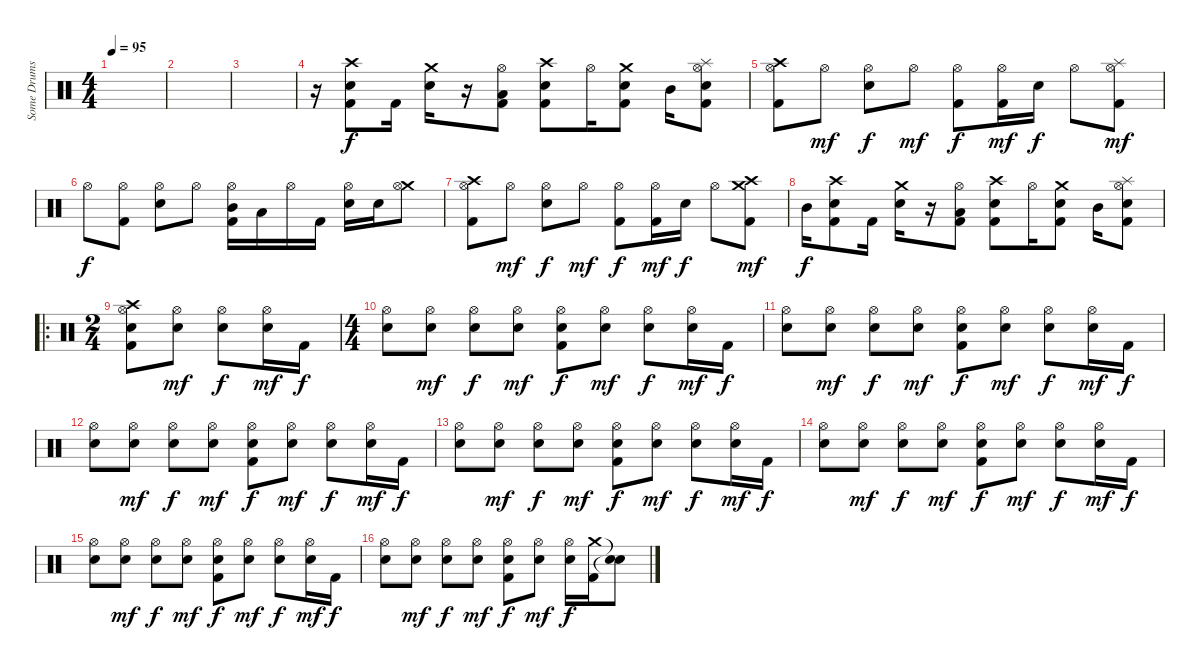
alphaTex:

\track ("Some Drums" "Some Drums") {instrument percussion}
\staff {score}
\articulation defaults
\ts (4 4)
\tempo 95
\tempo 60
\tempo 95
\clef neutral
\ks c
|
|
|
r.16 ("Crash high (hit)" "Electric Snare (hit)" "Kick (hit) 2").8 "Kick (hit) 2".16 ("Crash medium (hit)" "Electric Snare (hit)").16 r.16 ("Hi-Hat (open)" "Low Tom (hit)" "Kick (hit) 2").8 ("Crash high (hit)" "Electric Snare (hit)" "Kick (hit) 2").8 "Hi-Hat (open)".16 ("Crash medium (hit)" "Electric Snare (hit)" "Kick (hit) 2").8 "Mid Tom (hit)".16 ("Splash (hit)" "Hi-Hat (open)" "Electric Snare (hit)" "Kick (hit) 2").8 |
("Crash high (hit)" "Hi-Hat (open)" "Kick (hit) 2").8 "Hi-Hat (open)".8{dy mf} ("Hi-Hat (open)" "Electric Snare (hit)").8{dy f} "Hi-Hat (open)".8{dy mf} ("Hi-Hat (open)" "Kick (hit) 2").8{dy f} ("Hi-Hat (open)" "Kick (hit) 2").16{dy mf} "Electric Snare (hit)".16{dy f} "Hi-Hat (open)".8 ("Splash (hit)" "Hi-Hat (open)" "Kick (hit) 2").8{dy mf} |
"Hi-Hat (open)".8{dy f} ("Hi-Hat (open)" "Kick (hit) 2").8 ("Hi-Hat (open)" "Electric Snare (hit)").8 "Hi-Hat (open)".8 ("Hi-Hat (open)" "Mid Tom (hit)" "Kick (hit) 2").16 "Low Tom (hit)".16 "Hi-Hat (open)".16 "Kick (hit) 2".16 ("Hi-Hat (open)" "Electric Snare (hit)").16 "Electric Snare (hit)".16 ("Crash medium (hit)" "Hi-Hat (open)").8 |
("Crash high (hit)" "Hi-Hat (open)" "Kick (hit) 2").8 "Hi-Hat (open)".8{dy mf} ("Hi-Hat (open)" "Electric Snare (hit)").8{dy f} "Hi-Hat (open)".8{dy mf} ("Hi-Hat (open)" "Kick (hit) 2").8{dy f} ("Hi-Hat (open)" "Kick (hit) 2").16{dy mf} "Electric Snare (hit)".16{dy f} "Hi-Hat (open)".8 ("Crash medium (hit)" "Crash high (hit)" "Kick (hit) 2").8{dy mf} |
"Mid Tom (hit)".16{dy f} ("Crash high (hit)" "Electric Snare (hit)" "Kick (hit) 2").8 "Kick (hit) 2".16 ("Crash medium (hit)" "Electric Snare (hit)").16 r.16 ("Hi-Hat (open)" "Low Tom (hit)" "Kick (hit) 2").8 ("Crash high (hit)" "Electric Snare (hit)" "Kick (hit) 2").8 "Hi-Hat (open)".16 ("Crash medium (hit)" "Electric Snare (hit)" "Kick (hit) 2").8 "Mid Tom (hit)".16 ("Splash (hit)" "Hi-Hat (open)" "Electric Snare (hit)" "Kick (hit) 2").8 |
\ro
\ts (2 4)
("Crash high (hit)" "Hi-Hat (open)" "Electric Snare (hit)" "Kick (hit) 2").8 ("Hi-Hat (open)" "Electric Snare (hit)").8{dy mf} ("Hi-Hat (open)" "Electric Snare (hit)").8{dy f} ("Hi-Hat (open)" "Electric Snare (hit)").16{dy mf} "Kick (hit) 2".16{dy f} |
\ts (4 4)
("Hi-Hat (open)" "Electric Snare (hit)").8 ("Hi-Hat (open)" "Electric Snare (hit)").8{dy mf} ("Hi-Hat (open)" "Electric Snare (hit)").8{dy f} ("Hi-Hat (open)" "Electric Snare (hit)").8{dy mf} ("Hi-Hat (open)" "Electric Snare (hit)" "Kick (hit) 2").8{dy f} ("Hi-Hat (open)" "Electric Snare (hit)").8{dy mf} ("Hi-Hat (open)" "Electric Snare (hit)").8{dy f} ("Hi-Hat (open)" "Electric Snare (hit)").16{dy mf} "Kick (hit) 2".16{dy f} |
("Hi-Hat (open)" "Electric Snare (hit)").8 ("Hi-Hat (open)" "Electric Snare (hit)").8{dy mf} ("Hi-Hat (open)" "Electric Snare (hit)").8{dy f} ("Hi-Hat (open)" "Electric Snare (hit)").8{dy mf} ("Hi-Hat (open)" "Electric Snare (hit)" "Kick (hit) 2").8{dy f} ("Hi-Hat (open)" "Electric Snare (hit)").8{dy mf} ("Hi-Hat (open)" "Electric Snare (hit)").8{dy f} ("Hi-Hat (open)" "Electric Snare (hit)").16{dy mf} "Kick (hit) 2".16{dy f} |
("Hi-Hat (open)" "Electric Snare (hit)").8 ("Hi-Hat (open)" "Electric Snare (hit)").8{dy mf} ("Hi-Hat (open)" "Electric Snare (hit)").8{dy f} ("Hi-Hat (open)" "Electric Snare (hit)").8{dy mf} ("Hi-Hat (open)" "Electric Snare (hit)" "Kick (hit) 2").8{dy f} ("Hi-Hat (open)" "Electric Snare (hit)").8{dy mf} ("Hi-Hat (open)" "Electric Snare (hit)").8{dy f} ("Hi-Hat (open)" "Electric Snare (hit)").16{dy mf} "Kick (hit) 2".16{dy f} |
("Hi-Hat (open)" "Electric Snare (hit)").8 ("Hi-Hat (open)" "Electric Snare (hit)").8{dy mf} ("Hi-Hat (open)" "Electric Snare (hit)").8{dy f} ("Hi-Hat (open)" "Electric Snare (hit)").8{dy mf} ("Hi-Hat (open)" "Electric Snare (hit)" "Kick (hit) 2").8{dy f} ("Hi-Hat (open)" "Electric Snare (hit)").8{dy mf} ("Hi-Hat (open)" "Electric Snare (hit)").8{dy f} ("Hi-Hat (open)" "Electric Snare (hit)").16{dy mf} "Kick (hit) 2".16{dy f} |
("Hi-Hat (open)" "Electric Snare (hit)").8 ("Hi-Hat (open)" "Electric Snare (hit)").8{dy mf} ("Hi-Hat (open)" "Electric Snare (hit)").8{dy f} ("Hi-Hat (open)" "Electric Snare (hit)").8{dy mf} ("Hi-Hat (open)" "Electric Snare (hit)" "Kick (hit) 2").8{dy f} ("Hi-Hat (open)" "Electric Snare (hit)").8{dy mf} ("Hi-Hat (open)" "Electric Snare (hit)").8{dy f} ("Hi-Hat (open)" "Electric Snare (hit)").16{dy mf} "Kick (hit) 2".16{dy f} |
("Hi-Hat (open)" "Electric Snare (hit)").8 ("Hi-Hat (open)" "Electric Snare (hit)").8{dy mf} ("Hi-Hat (open)" "Electric Snare (hit)").8{dy f} ("Hi-Hat (open)" "Electric Snare (hit)").8{dy mf} ("Hi-Hat (open)" "Electric Snare (hit)" "Kick (hit) 2").8{dy f} ("Hi-Hat (open)" "Electric Snare (hit)").8{dy mf} ("Hi-Hat (open)" "Electric Snare (hit)").8{dy f} ("Hi-Hat (open)" "Electric Snare (hit)").16{dy mf} "Kick (hit) 2".16{dy f} |
("Hi-Hat (open)" "Electric Snare (hit)").8 ("Hi-Hat (open)" "Electric Snare (hit)").8{dy mf} ("Hi-Hat (open)" "Electric Snare (hit)").8{dy f} ("Hi-Hat (open)" "Electric Snare (hit)").8{dy mf} ("Hi-Hat (open)" "Electric Snare (hit)" "Kick (hit) 2").8{dy f} ("Hi-Hat (open)" "Electric Snare (hit)").8{dy mf} ("Hi-Hat (open)" "Electric Snare (hit)").16{dy f} ("Crash medium (hit)" "Kick (hit) 2").16 ("Snare (hit)"{t} "Snare (hit)"{t}).8
